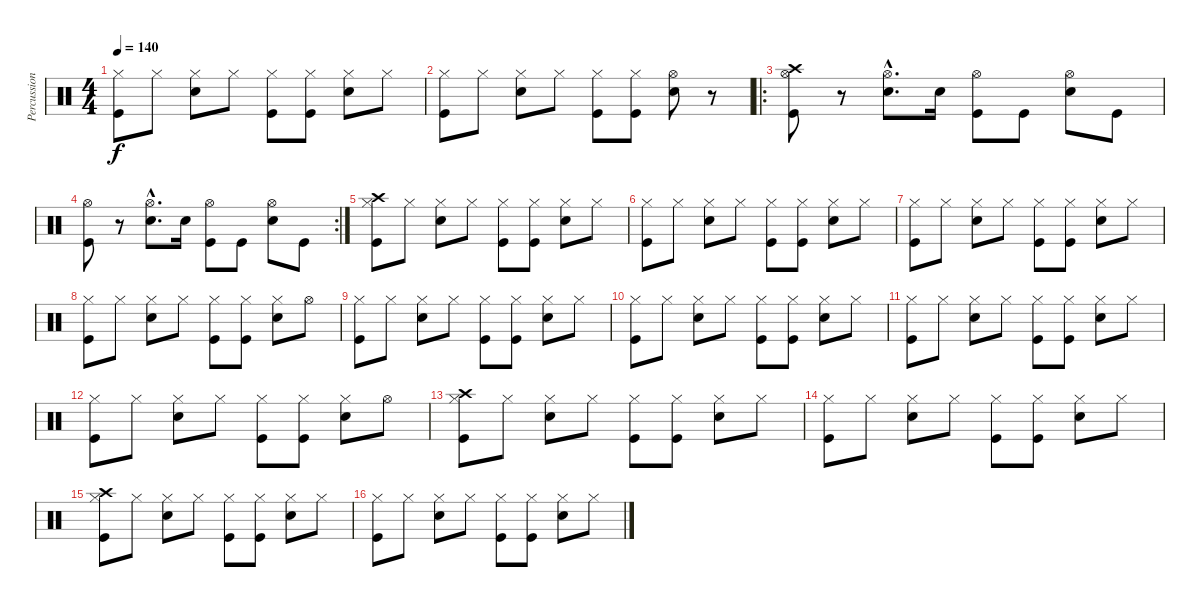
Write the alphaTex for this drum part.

\track ("Percussion" "Percussion") {instrument percussion}
\staff {score}
\articulation defaults
\ts (4 4)
\tempo 140
\clef neutral
\ks c
("Kick (hit)" "Hi-Hat (closed)").8{dy f} "Hi-Hat (closed)".8 ("Snare (hit) 2" "Hi-Hat (closed)").8 "Hi-Hat (closed)".8 ("Kick (hit)" "Hi-Hat (closed)").8 ("Kick (hit)" "Hi-Hat (closed)").8 ("Snare (hit) 2" "Hi-Hat (closed)").8 "Hi-Hat (closed)".8 |
("Kick (hit)" "Hi-Hat (closed)").8 "Hi-Hat (closed)".8 ("Snare (hit) 2" "Hi-Hat (closed)").8 "Hi-Hat (closed)".8 ("Kick (hit)" "Hi-Hat (closed)").8 ("Kick (hit)" "Hi-Hat (closed)").8 ("Snare (hit) 2" "Hi-Hat (open)").8 r.8 |
\ro
("Kick (hit)" "Hi-Hat (open)" "Crash high (hit)").8 r.8 ("Snare (hit) 2"{hac} "Hi-Hat (open)"{hac}).8{d} "Snare (hit) 2".16 ("Kick (hit)" "Hi-Hat (open)").8 "Kick (hit)".8 ("Snare (hit) 2" "Hi-Hat (open)").8 "Kick (hit)".8 |
\rc 2
("Kick (hit)" "Hi-Hat (open)").8 r.8 ("Snare (hit) 2"{hac} "Hi-Hat (open)"{hac}).8{d} "Snare (hit) 2".16 ("Kick (hit)" "Hi-Hat (open)").8 "Kick (hit)".8 ("Snare (hit) 2" "Hi-Hat (open)").8 "Kick (hit)".8 |
("Kick (hit)" "Hi-Hat (closed)" "Crash high (hit)").8 "Hi-Hat (closed)".8 ("Snare (hit) 2" "Hi-Hat (closed)").8 "Hi-Hat (closed)".8 ("Kick (hit)" "Hi-Hat (closed)").8 ("Kick (hit)" "Hi-Hat (closed)").8 ("Snare (hit) 2" "Hi-Hat (closed)").8 "Hi-Hat (closed)".8 |
("Kick (hit)" "Hi-Hat (closed)").8 "Hi-Hat (closed)".8 ("Snare (hit) 2" "Hi-Hat (closed)").8 "Hi-Hat (closed)".8 ("Kick (hit)" "Hi-Hat (closed)").8 ("Kick (hit)" "Hi-Hat (closed)").8 ("Snare (hit) 2" "Hi-Hat (closed)").8 "Hi-Hat (closed)".8 |
("Kick (hit)" "Hi-Hat (closed)").8 "Hi-Hat (closed)".8 ("Snare (hit) 2" "Hi-Hat (closed)").8 "Hi-Hat (closed)".8 ("Kick (hit)" "Hi-Hat (closed)").8 ("Kick (hit)" "Hi-Hat (closed)").8 ("Snare (hit) 2" "Hi-Hat (closed)").8 "Hi-Hat (closed)".8 |
("Kick (hit)" "Hi-Hat (closed)").8 "Hi-Hat (closed)".8 ("Snare (hit) 2" "Hi-Hat (closed)").8 "Hi-Hat (closed)".8 ("Kick (hit)" "Hi-Hat (closed)").8 ("Kick (hit)" "Hi-Hat (closed)").8 ("Snare (hit) 2" "Hi-Hat (closed)").8 "Hi-Hat (open)".8 |
("Kick (hit)" "Hi-Hat (closed)").8 "Hi-Hat (closed)".8 ("Snare (hit) 2" "Hi-Hat (closed)").8 "Hi-Hat (closed)".8 ("Kick (hit)" "Hi-Hat (closed)").8 ("Kick (hit)" "Hi-Hat (closed)").8 ("Snare (hit) 2" "Hi-Hat (closed)").8 "Hi-Hat (closed)".8 |
("Kick (hit)" "Hi-Hat (closed)").8 "Hi-Hat (closed)".8 ("Snare (hit) 2" "Hi-Hat (closed)").8 "Hi-Hat (closed)".8 ("Kick (hit)" "Hi-Hat (closed)").8 ("Kick (hit)" "Hi-Hat (closed)").8 ("Snare (hit) 2" "Hi-Hat (closed)").8 "Hi-Hat (closed)".8 |
("Kick (hit)" "Hi-Hat (closed)").8 "Hi-Hat (closed)".8 ("Snare (hit) 2" "Hi-Hat (closed)").8 "Hi-Hat (closed)".8 ("Kick (hit)" "Hi-Hat (closed)").8 ("Kick (hit)" "Hi-Hat (closed)").8 ("Snare (hit) 2" "Hi-Hat (closed)").8 "Hi-Hat (closed)".8 |
("Kick (hit)" "Hi-Hat (closed)").8 "Hi-Hat (closed)".8 ("Snare (hit) 2" "Hi-Hat (closed)").8 "Hi-Hat (closed)".8 ("Kick (hit)" "Hi-Hat (closed)").8 ("Kick (hit)" "Hi-Hat (closed)").8 ("Snare (hit) 2" "Hi-Hat (closed)").8 "Hi-Hat (open)".8 |
("Kick (hit)" "Hi-Hat (closed)" "Crash high (hit)").8 "Hi-Hat (closed)".8 ("Snare (hit) 2" "Hi-Hat (closed)").8 "Hi-Hat (closed)".8 ("Kick (hit)" "Hi-Hat (closed)").8 ("Kick (hit)" "Hi-Hat (closed)").8 ("Snare (hit) 2" "Hi-Hat (closed)").8 "Hi-Hat (closed)".8 |
("Kick (hit)" "Hi-Hat (closed)").8 "Hi-Hat (closed)".8 ("Snare (hit) 2" "Hi-Hat (closed)").8 "Hi-Hat (closed)".8 ("Kick (hit)" "Hi-Hat (closed)").8 ("Kick (hit)" "Hi-Hat (closed)").8 ("Snare (hit) 2" "Hi-Hat (closed)").8 "Hi-Hat (closed)".8 |
("Kick (hit)" "Hi-Hat (closed)" "Crash high (hit)").8 "Hi-Hat (closed)".8 ("Snare (hit) 2" "Hi-Hat (closed)").8 "Hi-Hat (closed)".8 ("Kick (hit)" "Hi-Hat (closed)").8 ("Kick (hit)" "Hi-Hat (closed)").8 ("Snare (hit) 2" "Hi-Hat (closed)").8 "Hi-Hat (closed)".8 |
("Kick (hit)" "Hi-Hat (closed)").8 "Hi-Hat (closed)".8 ("Snare (hit) 2" "Hi-Hat (closed)").8 "Hi-Hat (closed)".8 ("Kick (hit)" "Hi-Hat (closed)").8 ("Kick (hit)" "Hi-Hat (closed)").8 ("Snare (hit) 2" "Hi-Hat (closed)").8 "Hi-Hat (closed)".8
